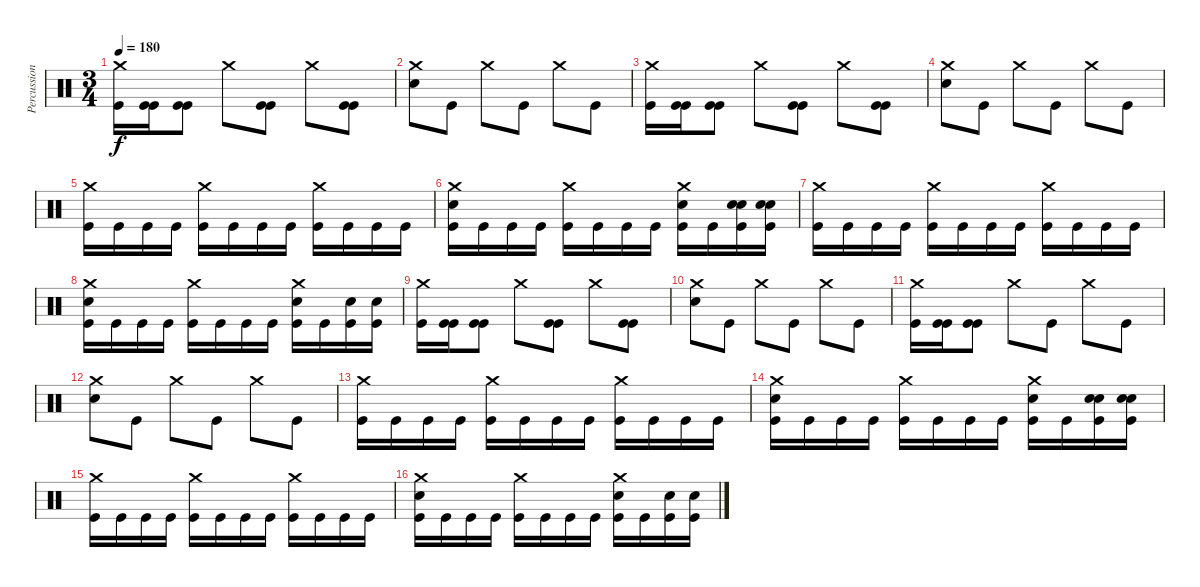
\track ("Percussion" "Percussion") {instrument percussion}
\staff {score}
\articulation defaults
\ts (3 4)
\tempo 180
\clef neutral
\ks c
("Crash medium (hit)" "Kick (hit)").16{dy f} ("Kick (hit)" "Kick (hit)").16 ("Kick (hit)" "Kick (hit)").8 "Crash medium (hit)".8 ("Kick (hit)" "Kick (hit)").8 "Crash medium (hit)".8 ("Kick (hit)" "Kick (hit)").8 |
("Crash medium (hit)" "Snare (hit) 2").8 "Kick (hit)".8 "Crash medium (hit)".8 "Kick (hit)".8 "Crash medium (hit)".8 "Kick (hit)".8 |
("Crash medium (hit)" "Kick (hit)").16 ("Kick (hit)" "Kick (hit)").16 ("Kick (hit)" "Kick (hit)").8 "Crash medium (hit)".8 ("Kick (hit)" "Kick (hit)").8 "Crash medium (hit)".8 ("Kick (hit)" "Kick (hit)").8 |
("Crash medium (hit)" "Snare (hit) 2").8 "Kick (hit)".8 "Crash medium (hit)".8 "Kick (hit)".8 "Crash medium (hit)".8 "Kick (hit)".8 |
("Crash medium (hit)" "Kick (hit)").16 "Kick (hit)".16 "Kick (hit)".16 "Kick (hit)".16 ("Crash medium (hit)" "Kick (hit)").16 "Kick (hit)".16 "Kick (hit)".16 "Kick (hit)".16 ("Crash medium (hit)" "Kick (hit)").16 "Kick (hit)".16 "Kick (hit)".16 "Kick (hit)".16 |
("Snare (hit) 2" "Crash medium (hit)" "Kick (hit)").16 "Kick (hit)".16 "Kick (hit)".16 "Kick (hit)".16 ("Crash medium (hit)" "Kick (hit)").16 "Kick (hit)".16 "Kick (hit)".16 "Kick (hit)".16 ("Snare (hit) 2" "Crash medium (hit)" "Kick (hit)").16 "Kick (hit)".16 ("Snare (hit) 2" "Snare (hit) 2" "Kick (hit)").16 ("Snare (hit) 2" "Snare (hit) 2" "Kick (hit)").16 |
("Crash medium (hit)" "Kick (hit)").16 "Kick (hit)".16 "Kick (hit)".16 "Kick (hit)".16 ("Crash medium (hit)" "Kick (hit)").16 "Kick (hit)".16 "Kick (hit)".16 "Kick (hit)".16 ("Crash medium (hit)" "Kick (hit)").16 "Kick (hit)".16 "Kick (hit)".16 "Kick (hit)".16 |
("Snare (hit) 2" "Crash medium (hit)" "Kick (hit)").16 "Kick (hit)".16 "Kick (hit)".16 "Kick (hit)".16 ("Crash medium (hit)" "Kick (hit)").16 "Kick (hit)".16 "Kick (hit)".16 "Kick (hit)".16 ("Snare (hit) 2" "Crash medium (hit)" "Kick (hit)").16 "Kick (hit)".16 ("Snare (hit) 2" "Kick (hit)").16 ("Snare (hit) 2" "Kick (hit)").16 |
("Crash medium (hit)" "Kick (hit)").16 ("Kick (hit)" "Kick (hit)").16 ("Kick (hit)" "Kick (hit)").8 "Crash medium (hit)".8 ("Kick (hit)" "Kick (hit)").8 "Crash medium (hit)".8 ("Kick (hit)" "Kick (hit)").8 |
("Crash medium (hit)" "Snare (hit) 2").8 "Kick (hit)".8 "Crash medium (hit)".8 "Kick (hit)".8 "Crash medium (hit)".8 "Kick (hit)".8 |
("Crash medium (hit)" "Kick (hit)").16 ("Kick (hit)" "Kick (hit)").16 ("Kick (hit)" "Kick (hit)").8 "Crash medium (hit)".8 "Kick (hit)".8 "Crash medium (hit)".8 "Kick (hit)".8 |
("Crash medium (hit)" "Snare (hit) 2").8 "Kick (hit)".8 "Crash medium (hit)".8 "Kick (hit)".8 "Crash medium (hit)".8 "Kick (hit)".8 |
("Crash medium (hit)" "Kick (hit)").16 "Kick (hit)".16 "Kick (hit)".16 "Kick (hit)".16 ("Crash medium (hit)" "Kick (hit)").16 "Kick (hit)".16 "Kick (hit)".16 "Kick (hit)".16 ("Crash medium (hit)" "Kick (hit)").16 "Kick (hit)".16 "Kick (hit)".16 "Kick (hit)".16 |
("Snare (hit) 2" "Crash medium (hit)" "Kick (hit)").16 "Kick (hit)".16 "Kick (hit)".16 "Kick (hit)".16 ("Crash medium (hit)" "Kick (hit)").16 "Kick (hit)".16 "Kick (hit)".16 "Kick (hit)".16 ("Snare (hit) 2" "Crash medium (hit)" "Kick (hit)").16 "Kick (hit)".16 ("Snare (hit) 2" "Snare (hit) 2" "Kick (hit)").16 ("Snare (hit) 2" "Snare (hit) 2" "Kick (hit)").16 |
("Crash medium (hit)" "Kick (hit)").16 "Kick (hit)".16 "Kick (hit)".16 "Kick (hit)".16 ("Crash medium (hit)" "Kick (hit)").16 "Kick (hit)".16 "Kick (hit)".16 "Kick (hit)".16 ("Crash medium (hit)" "Kick (hit)").16 "Kick (hit)".16 "Kick (hit)".16 "Kick (hit)".16 |
("Snare (hit) 2" "Crash medium (hit)" "Kick (hit)").16 "Kick (hit)".16 "Kick (hit)".16 "Kick (hit)".16 ("Crash medium (hit)" "Kick (hit)").16 "Kick (hit)".16 "Kick (hit)".16 "Kick (hit)".16 ("Snare (hit) 2" "Crash medium (hit)" "Kick (hit)").16 "Kick (hit)".16 ("Snare (hit) 2" "Kick (hit)").16 ("Snare (hit) 2" "Kick (hit)").16
